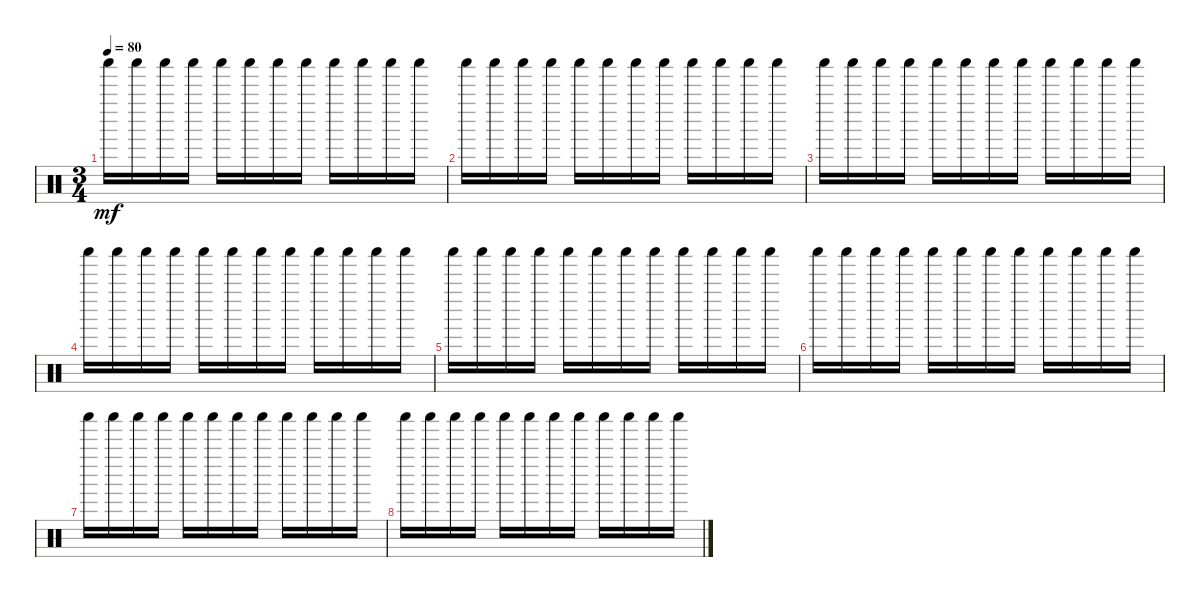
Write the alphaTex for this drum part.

\track "" {instrument percussion}
\staff {score}
\articulation defaults
\ts (3 4)
\tempo 80
\clef neutral
\ks c "Shaker (hit)".16{dy mf} "Shaker (hit)".16 "Shaker (hit)".16 "Shaker (hit)".16 "Shaker (hit)".16 "Shaker (hit)".16 "Shaker (hit)".16 "Shaker (hit)".16 "Shaker (hit)".16 "Shaker (hit)".16 "Shaker (hit)".16 "Shaker (hit)".16
|
"Shaker (hit)".16 "Shaker (hit)".16 "Shaker (hit)".16 "Shaker (hit)".16 "Shaker (hit)".16 "Shaker (hit)".16 "Shaker (hit)".16 "Shaker (hit)".16 "Shaker (hit)".16 "Shaker (hit)".16 "Shaker (hit)".16 "Shaker (hit)".16 |
"Shaker (hit)".16 "Shaker (hit)".16 "Shaker (hit)".16 "Shaker (hit)".16 "Shaker (hit)".16 "Shaker (hit)".16 "Shaker (hit)".16 "Shaker (hit)".16 "Shaker (hit)".16 "Shaker (hit)".16 "Shaker (hit)".16 "Shaker (hit)".16 |
"Shaker (hit)".16 "Shaker (hit)".16 "Shaker (hit)".16 "Shaker (hit)".16 "Shaker (hit)".16 "Shaker (hit)".16 "Shaker (hit)".16 "Shaker (hit)".16 "Shaker (hit)".16 "Shaker (hit)".16 "Shaker (hit)".16 "Shaker (hit)".16 |
"Shaker (hit)".16 "Shaker (hit)".16 "Shaker (hit)".16 "Shaker (hit)".16 "Shaker (hit)".16 "Shaker (hit)".16 "Shaker (hit)".16 "Shaker (hit)".16 "Shaker (hit)".16 "Shaker (hit)".16 "Shaker (hit)".16 "Shaker (hit)".16 |
"Shaker (hit)".16 "Shaker (hit)".16 "Shaker (hit)".16 "Shaker (hit)".16 "Shaker (hit)".16 "Shaker (hit)".16 "Shaker (hit)".16 "Shaker (hit)".16 "Shaker (hit)".16 "Shaker (hit)".16 "Shaker (hit)".16 "Shaker (hit)".16 |
"Shaker (hit)".16 "Shaker (hit)".16 "Shaker (hit)".16 "Shaker (hit)".16 "Shaker (hit)".16 "Shaker (hit)".16 "Shaker (hit)".16 "Shaker (hit)".16 "Shaker (hit)".16 "Shaker (hit)".16 "Shaker (hit)".16 "Shaker (hit)".16 |
"Shaker (hit)".16 "Shaker (hit)".16 "Shaker (hit)".16 "Shaker (hit)".16 "Shaker (hit)".16 "Shaker (hit)".16 "Shaker (hit)".16 "Shaker (hit)".16 "Shaker (hit)".16 "Shaker (hit)".16 "Shaker (hit)".16 "Shaker (hit)".16
